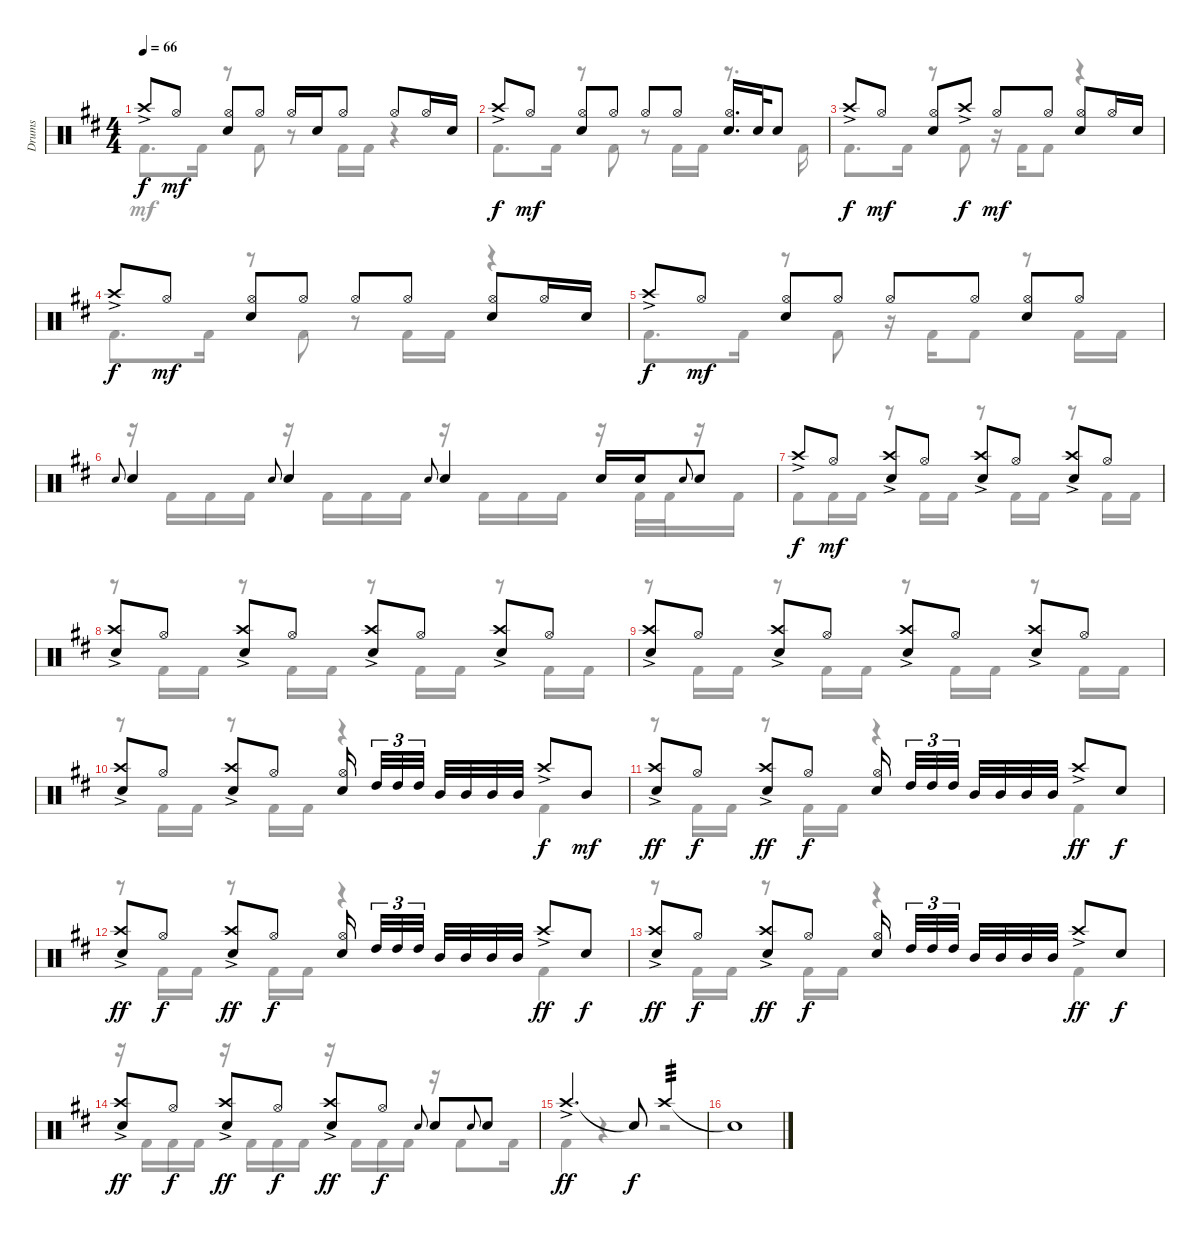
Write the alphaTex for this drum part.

\track ("Drums" "Drums") {instrument percussion}
\staff {score}
\articulation defaults
\voice
\ts (4 4)
\tempo 66
\clef neutral
\ks d "Crash high (hit)"{ac}.8{dy f} "Hi-Hat (open)".8{dy mf}
("Hi-Hat (open)" "Electric Snare (hit)").8 "Hi-Hat (open)".8 "Hi-Hat (open)".16 "Electric Snare (hit)".16 "Hi-Hat (open)".8 "Hi-Hat (open)".8 "Hi-Hat (open)".16 "Electric Snare (hit)".16 |
"Crash high (hit)"{ac}.8{dy f} "Hi-Hat (open)".8{dy mf} ("Hi-Hat (open)" "Electric Snare (hit)").8 "Hi-Hat (open)".8 "Hi-Hat (open)".8 "Hi-Hat (open)".8 ("Hi-Hat (open)" "Electric Snare (hit)").16{d} "Electric Snare (hit)".32 "Electric Snare (hit)".8 |
"Crash high (hit)"{ac}.8{dy f} "Hi-Hat (open)".8{dy mf} ("Hi-Hat (open)" "Electric Snare (hit)").8 "Crash high (hit)"{ac}.8{dy f} "Hi-Hat (open)".8{dy mf} "Hi-Hat (open)".8 ("Hi-Hat (open)" "Electric Snare (hit)").8 "Hi-Hat (open)".16 "Electric Snare (hit)".16 |
"Crash high (hit)"{ac}.8{dy f} "Hi-Hat (open)".8{dy mf} ("Hi-Hat (open)" "Electric Snare (hit)").8 "Hi-Hat (open)".8 "Hi-Hat (open)".8 "Hi-Hat (open)".8 ("Hi-Hat (open)" "Electric Snare (hit)").8 "Hi-Hat (open)".16 "Electric Snare (hit)".16 |
"Crash high (hit)"{ac}.8{dy f} "Hi-Hat (open)".8{dy mf} ("Hi-Hat (open)" "Electric Snare (hit)").8 "Hi-Hat (open)".8 "Hi-Hat (open)".8 "Hi-Hat (open)".8 ("Hi-Hat (open)" "Electric Snare (hit)").8 "Hi-Hat (open)".8 |
"Electric Snare (hit)".8{gr onbeat} "Electric Snare (hit)".4 "Electric Snare (hit)".8{gr onbeat} "Electric Snare (hit)".4 "Electric Snare (hit)".8{gr onbeat} "Electric Snare (hit)".4 "Electric Snare (hit)".16 "Electric Snare (hit)".16 "Electric Snare (hit)".8{gr onbeat} "Electric Snare (hit)".8 |
"Crash high (hit)"{ac}.8{dy f} "Hi-Hat (open)".8{dy mf} ("Crash high (hit)"{ac} "Electric Snare (hit)").8 "Hi-Hat (open)".8 ("Crash high (hit)"{ac} "Electric Snare (hit)").8 "Hi-Hat (open)".8 ("Crash high (hit)"{ac} "Electric Snare (hit)").8 "Hi-Hat (open)".8 |
("Crash high (hit)"{ac} "Electric Snare (hit)").8 "Hi-Hat (open)".8 ("Crash high (hit)"{ac} "Electric Snare (hit)").8 "Hi-Hat (open)".8 ("Crash high (hit)"{ac} "Electric Snare (hit)").8 "Hi-Hat (open)".8 ("Crash high (hit)"{ac} "Electric Snare (hit)").8 "Hi-Hat (open)".8 |
("Crash high (hit)"{ac} "Electric Snare (hit)").8 "Hi-Hat (open)".8 ("Crash high (hit)"{ac} "Electric Snare (hit)").8 "Hi-Hat (open)".8 ("Crash high (hit)"{ac} "Electric Snare (hit)").8 "Hi-Hat (open)".8 ("Crash high (hit)"{ac} "Electric Snare (hit)").8 "Hi-Hat (open)".8 |
("Crash high (hit)"{ac} "Electric Snare (hit)").8 "Hi-Hat (open)".8 ("Crash high (hit)"{ac} "Electric Snare (hit)").8 "Hi-Hat (open)".8 ("Hi-Hat (open)" "Electric Snare (hit)").16{beam splitsecondary} "High Tom (hit)".32{tu (3 2)} "High Tom (hit)".32{tu (3 2)} "High Tom (hit)".32{tu (3 2) beam splitsecondary} "Mid Tom (hit)".32 "Mid Tom (hit)".32 "Mid Tom (hit)".32 "Mid Tom (hit)".32 "Crash high (hit)"{ac}.8{dy f} "Mid Tom (hit)".8{dy mf} |
("Crash high (hit)"{ac} "Electric Snare (hit)").8{dy ff} "Hi-Hat (open)".8{dy f} ("Crash high (hit)"{ac} "Electric Snare (hit)").8{dy ff} "Hi-Hat (open)".8{dy f} ("Hi-Hat (open)" "Electric Snare (hit)").16{beam splitsecondary} "High Tom (hit)".32{tu (3 2)} "High Tom (hit)".32{tu (3 2)} "High Tom (hit)".32{tu (3 2) beam splitsecondary} "Mid Tom (hit)".32 "Mid Tom (hit)".32 "Mid Tom (hit)".32 "Mid Tom (hit)".32 "Crash high (hit)"{ac}.8{dy ff} "Electric Snare (hit)".8{dy f} |
("Crash high (hit)"{ac} "Electric Snare (hit)").8{dy ff} "Hi-Hat (open)".8{dy f} ("Crash high (hit)"{ac} "Electric Snare (hit)").8{dy ff} "Hi-Hat (open)".8{dy f} ("Hi-Hat (open)" "Electric Snare (hit)").16{beam splitsecondary} "High Tom (hit)".32{tu (3 2)} "High Tom (hit)".32{tu (3 2)} "High Tom (hit)".32{tu (3 2) beam splitsecondary} "Mid Tom (hit)".32 "Mid Tom (hit)".32 "Mid Tom (hit)".32 "Mid Tom (hit)".32 "Crash high (hit)"{ac}.8{dy ff} "Electric Snare (hit)".8{dy f} |
("Crash high (hit)"{ac} "Electric Snare (hit)").8{dy ff} "Hi-Hat (open)".8{dy f} ("Crash high (hit)"{ac} "Electric Snare (hit)").8{dy ff} "Hi-Hat (open)".8{dy f} ("Hi-Hat (open)" "Electric Snare (hit)").16{beam splitsecondary} "High Tom (hit)".32{tu (3 2)} "High Tom (hit)".32{tu (3 2)} "High Tom (hit)".32{tu (3 2) beam splitsecondary} "Mid Tom (hit)".32 "Mid Tom (hit)".32 "Mid Tom (hit)".32 "Mid Tom (hit)".32 "Crash high (hit)"{ac}.8{dy ff} "Electric Snare (hit)".8{dy f} |
("Crash high (hit)"{ac} "Electric Snare (hit)").8{dy ff} "Hi-Hat (open)".8{dy f} ("Crash high (hit)"{ac} "Electric Snare (hit)").8{dy ff} "Hi-Hat (open)".8{dy f} ("Crash high (hit)"{ac} "Electric Snare (hit)").8{dy ff} "Hi-Hat (open)".8{dy f} "Electric Snare (hit)".8{gr onbeat} "Electric Snare (hit)".8 "Electric Snare (hit)".8{gr onbeat} "Electric Snare (hit)".8 |
"Crash high (hit)"{ac}.4{d dy ff} "Snare (hit)"{t}.8{dy f volume 0} "Crash high (hit)".2{tp 3 volume 13} |
"Snare (hit)"{t}.1
\voice
\clef neutral
\ottava regular
\simile none
\ks d "Kick (hit) 2".8{d dy mf} "Kick (hit) 2".16
r.8 "Kick (hit) 2".8 r.8 "Kick (hit) 2".16 "Kick (hit) 2".16 r.4 |
"Kick (hit) 2".8{d} "Kick (hit) 2".16 r.8 "Kick (hit) 2".8 r.8 "Kick (hit) 2".16 "Kick (hit) 2".16 r.8{d} "Kick (hit) 2".16 |
"Kick (hit) 2".8{d} "Kick (hit) 2".16 r.8 "Kick (hit) 2".8 r.16 "Kick (hit) 2".16 "Kick (hit) 2".8 r.4 |
"Kick (hit) 2".8{d} "Kick (hit) 2".16 r.8 "Kick (hit) 2".8 r.8 "Kick (hit) 2".16 "Kick (hit) 2".16 r.4 |
"Kick (hit) 2".8{d} "Kick (hit) 2".16 r.8 "Kick (hit) 2".8 r.16 "Kick (hit) 2".16 "Kick (hit) 2".8 r.8 "Kick (hit) 2".16 "Kick (hit) 2".16 |
r.16 "Kick (hit) 2".16 "Kick (hit) 2".16 "Kick (hit) 2".16 r.16 "Kick (hit) 2".16 "Kick (hit) 2".16 "Kick (hit) 2".16 r.16 "Kick (hit) 2".16 "Kick (hit) 2".16 "Kick (hit) 2".16 r.16 "Kick (hit) 2".32 "Kick (hit) 2".32 r.16 "Kick (hit) 2".16 |
"Kick (hit) 2".8 "Kick (hit) 2".16 "Kick (hit) 2".16 r.8 "Kick (hit) 2".16 "Kick (hit) 2".16 r.8 "Kick (hit) 2".16 "Kick (hit) 2".16 r.8 "Kick (hit) 2".16 "Kick (hit) 2".16 |
r.8 "Kick (hit) 2".16 "Kick (hit) 2".16 r.8 "Kick (hit) 2".16 "Kick (hit) 2".16 r.8 "Kick (hit) 2".16 "Kick (hit) 2".16 r.8 "Kick (hit) 2".16 "Kick (hit) 2".16 |
r.8 "Kick (hit) 2".16 "Kick (hit) 2".16 r.8 "Kick (hit) 2".16 "Kick (hit) 2".16 r.8 "Kick (hit) 2".16 "Kick (hit) 2".16 r.8 "Kick (hit) 2".16 "Kick (hit) 2".16 |
r.8 "Kick (hit) 2".16 "Kick (hit) 2".16 r.8 "Kick (hit) 2".16 "Kick (hit) 2".16 r.4 "Kick (hit) 2".4 |
r.8 "Kick (hit) 2".16{dy f} "Kick (hit) 2".16 r.8 "Kick (hit) 2".16 "Kick (hit) 2".16 r.4 "Kick (hit) 2".4 |
r.8 "Kick (hit) 2".16 "Kick (hit) 2".16 r.8 "Kick (hit) 2".16 "Kick (hit) 2".16 r.4 "Kick (hit) 2".4 |
r.8 "Kick (hit) 2".16 "Kick (hit) 2".16 r.8 "Kick (hit) 2".16 "Kick (hit) 2".16 r.4 "Kick (hit) 2".4 |
r.16 "Kick (hit) 2".16 "Kick (hit) 2".16 "Kick (hit) 2".16 r.16 "Kick (hit) 2".16 "Kick (hit) 2".16 "Kick (hit) 2".16 r.16 "Kick (hit) 2".16 "Kick (hit) 2".16 "Kick (hit) 2".16 r.16 "Kick (hit) 2".8 "Kick (hit) 2".16 |
"Kick (hit) 2".4 r.4 r.2 |
